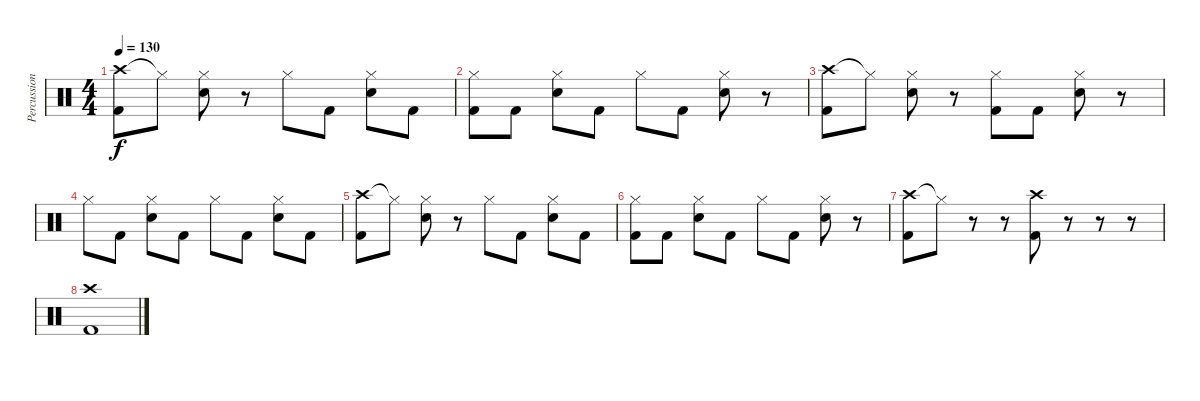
\track ("Percussion" "Percussion") {instrument percussion}
\staff {score}
\articulation defaults
\ts (4 4)
\tempo 130
\clef neutral
\ks c
("Crash high (hit)" "Kick (hit) 2").8{dy f} "Hi-Hat (closed)"{t}.8 ("Hi-Hat (closed)" "Snare (hit) 2").8 r.8 "Hi-Hat (closed)".8 "Kick (hit) 2".8 ("Hi-Hat (closed)" "Snare (hit) 2").8 "Kick (hit) 2".8 |
("Hi-Hat (closed)" "Kick (hit) 2").8 "Kick (hit) 2".8 ("Hi-Hat (closed)" "Snare (hit) 2").8 "Kick (hit) 2".8 "Hi-Hat (closed)".8 "Kick (hit) 2".8 ("Hi-Hat (closed)" "Snare (hit) 2").8 r.8 |
("Crash high (hit)" "Kick (hit) 2").8 "Hi-Hat (closed)"{t}.8 ("Hi-Hat (closed)" "Snare (hit) 2").8 r.8 ("Hi-Hat (closed)" "Kick (hit) 2").8 "Kick (hit) 2".8 ("Hi-Hat (closed)" "Snare (hit) 2").8 r.8 |
"Hi-Hat (closed)".8 "Kick (hit) 2".8 ("Hi-Hat (closed)" "Snare (hit) 2").8 "Kick (hit) 2".8 "Hi-Hat (closed)".8 "Kick (hit) 2".8 ("Hi-Hat (closed)" "Snare (hit) 2").8 "Kick (hit) 2".8 |
("Crash high (hit)" "Kick (hit) 2").8 "Hi-Hat (closed)"{t}.8 ("Hi-Hat (closed)" "Snare (hit) 2").8 r.8 "Hi-Hat (closed)".8 "Kick (hit) 2".8 ("Hi-Hat (closed)" "Snare (hit) 2").8 "Kick (hit) 2".8 |
("Hi-Hat (closed)" "Kick (hit) 2").8 "Kick (hit) 2".8 ("Hi-Hat (closed)" "Snare (hit) 2").8 "Kick (hit) 2".8 "Hi-Hat (closed)".8 "Kick (hit) 2".8 ("Hi-Hat (closed)" "Snare (hit) 2").8 r.8 |
("Crash high (hit)" "Kick (hit) 2").8 "Hi-Hat (closed)"{t}.8 r.8 r.8 ("Crash high (hit)" "Kick (hit) 2").8 r.8 r.8 r.8 |
("Crash high (hit)" "Kick (hit) 2").1
